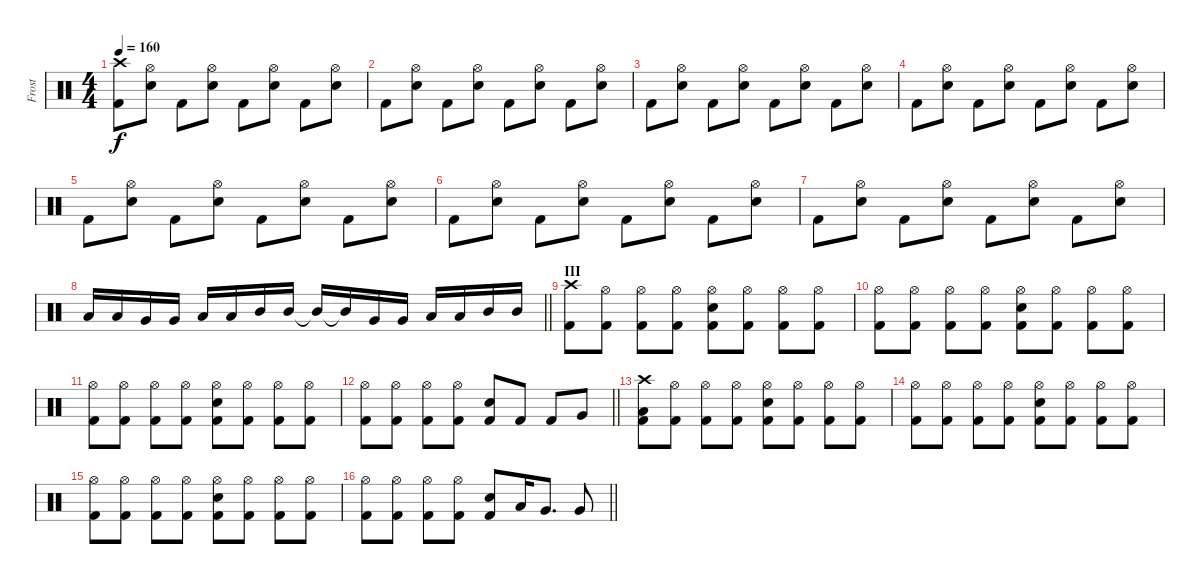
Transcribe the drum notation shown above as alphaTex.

\track ("Frost" "Frost") {instrument percussion}
\staff {score}
\articulation defaults
\ts (4 4)
\tempo 160
\clef neutral
\ks c
("Crash high (hit)" "Kick (hit) 2").8{dy f} ("Hi-Hat (open)" "Snare (hit) 2").8 "Kick (hit) 2".8 ("Hi-Hat (open)" "Snare (hit) 2").8 "Kick (hit) 2".8 ("Hi-Hat (open)" "Snare (hit) 2").8 "Kick (hit) 2".8 ("Hi-Hat (open)" "Snare (hit) 2").8 |
"Kick (hit) 2".8 ("Hi-Hat (open)" "Snare (hit) 2").8 "Kick (hit) 2".8 ("Hi-Hat (open)" "Snare (hit) 2").8 "Kick (hit) 2".8 ("Hi-Hat (open)" "Snare (hit) 2").8 "Kick (hit) 2".8 ("Hi-Hat (open)" "Snare (hit) 2").8 |
"Kick (hit) 2".8 ("Hi-Hat (open)" "Snare (hit) 2").8 "Kick (hit) 2".8 ("Hi-Hat (open)" "Snare (hit) 2").8 "Kick (hit) 2".8 ("Hi-Hat (open)" "Snare (hit) 2").8 "Kick (hit) 2".8 ("Hi-Hat (open)" "Snare (hit) 2").8 |
"Kick (hit) 2".8 ("Hi-Hat (open)" "Snare (hit) 2").8 "Kick (hit) 2".8 ("Hi-Hat (open)" "Snare (hit) 2").8 "Kick (hit) 2".8 ("Hi-Hat (open)" "Snare (hit) 2").8 "Kick (hit) 2".8 ("Hi-Hat (open)" "Snare (hit) 2").8 |
"Kick (hit) 2".8 ("Hi-Hat (open)" "Snare (hit) 2").8 "Kick (hit) 2".8 ("Hi-Hat (open)" "Snare (hit) 2").8 "Kick (hit) 2".8 ("Hi-Hat (open)" "Snare (hit) 2").8 "Kick (hit) 2".8 ("Hi-Hat (open)" "Snare (hit) 2").8 |
"Kick (hit) 2".8 ("Hi-Hat (open)" "Snare (hit) 2").8 "Kick (hit) 2".8 ("Hi-Hat (open)" "Snare (hit) 2").8 "Kick (hit) 2".8 ("Hi-Hat (open)" "Snare (hit) 2").8 "Kick (hit) 2".8 ("Hi-Hat (open)" "Snare (hit) 2").8 |
"Kick (hit) 2".8 ("Hi-Hat (open)" "Snare (hit) 2").8 "Kick (hit) 2".8 ("Hi-Hat (open)" "Snare (hit) 2").8 "Kick (hit) 2".8 ("Hi-Hat (open)" "Snare (hit) 2").8 "Kick (hit) 2".8 ("Hi-Hat (open)" "Snare (hit) 2").8 |
\barLineRight lightlight "Low Floor Tom (hit)".16 "Low Floor Tom (hit)".16 "Very Low Tom (hit)".16 "Very Low Tom (hit)".16 "Low Tom (hit)".16 "Low Tom (hit)".16 "Mid Tom (hit)".16 "Mid Tom (hit)".16 "Mid Tom (hit)"{t}.16 "Mid Tom (hit)"{t}.16 "Very Low Tom (hit)".16 "Very Low Tom (hit)".16 "Low Tom (hit)".16 "Low Tom (hit)".16 "Mid Tom (hit)".16 "Mid Tom (hit)".16
|
\section ("" "III")
("Crash high (hit)" "Kick (hit) 2").8 ("Hi-Hat (open)" "Kick (hit) 2").8 ("Hi-Hat (open)" "Kick (hit) 2").8 ("Hi-Hat (open)" "Kick (hit) 2").8 ("Hi-Hat (open)" "Snare (hit) 2" "Kick (hit) 2").8 ("Hi-Hat (open)" "Kick (hit) 2").8 ("Hi-Hat (open)" "Kick (hit) 2").8 ("Hi-Hat (open)" "Kick (hit) 2").8 |
("Hi-Hat (open)" "Kick (hit) 2").8 ("Hi-Hat (open)" "Kick (hit) 2").8 ("Hi-Hat (open)" "Kick (hit) 2").8 ("Hi-Hat (open)" "Kick (hit) 2").8 ("Hi-Hat (open)" "Snare (hit) 2" "Kick (hit) 2").8 ("Hi-Hat (open)" "Kick (hit) 2").8 ("Hi-Hat (open)" "Kick (hit) 2").8 ("Hi-Hat (open)" "Kick (hit) 2").8 |
("Hi-Hat (open)" "Kick (hit) 2").8 ("Hi-Hat (open)" "Kick (hit) 2").8 ("Hi-Hat (open)" "Kick (hit) 2").8 ("Hi-Hat (open)" "Kick (hit) 2").8 ("Hi-Hat (open)" "Snare (hit) 2" "Kick (hit) 2").8 ("Hi-Hat (open)" "Kick (hit) 2").8 ("Hi-Hat (open)" "Kick (hit) 2").8 ("Hi-Hat (open)" "Kick (hit) 2").8 |
\barLineRight lightlight
("Hi-Hat (open)" "Kick (hit) 2").8 ("Hi-Hat (open)" "Kick (hit) 2").8 ("Hi-Hat (open)" "Kick (hit) 2").8 ("Hi-Hat (open)" "Kick (hit) 2").8 ("Snare (hit) 2" "Kick (hit) 2").8 "Kick (hit) 2".8 "Kick (hit) 2".8 "Very Low Tom (hit)".8 |
("Crash high (hit)" "Low Tom (hit)" "Kick (hit) 2").8 ("Hi-Hat (open)" "Kick (hit) 2").8 ("Hi-Hat (open)" "Kick (hit) 2").8 ("Hi-Hat (open)" "Kick (hit) 2").8 ("Hi-Hat (open)" "Snare (hit) 2" "Kick (hit) 2").8 ("Hi-Hat (open)" "Kick (hit) 2").8 ("Hi-Hat (open)" "Kick (hit) 2").8 ("Hi-Hat (open)" "Kick (hit) 2").8 |
("Hi-Hat (open)" "Kick (hit) 2").8 ("Hi-Hat (open)" "Kick (hit) 2").8 ("Hi-Hat (open)" "Kick (hit) 2").8 ("Hi-Hat (open)" "Kick (hit) 2").8 ("Hi-Hat (open)" "Snare (hit) 2" "Kick (hit) 2").8 ("Hi-Hat (open)" "Kick (hit) 2").8 ("Hi-Hat (open)" "Kick (hit) 2").8 ("Hi-Hat (open)" "Kick (hit) 2").8 |
("Hi-Hat (open)" "Kick (hit) 2").8 ("Hi-Hat (open)" "Kick (hit) 2").8 ("Hi-Hat (open)" "Kick (hit) 2").8 ("Hi-Hat (open)" "Kick (hit) 2").8 ("Hi-Hat (open)" "Snare (hit) 2" "Kick (hit) 2").8 ("Hi-Hat (open)" "Kick (hit) 2").8 ("Hi-Hat (open)" "Kick (hit) 2").8 ("Hi-Hat (open)" "Kick (hit) 2").8 |
\barLineRight lightlight
("Hi-Hat (open)" "Kick (hit) 2").8 ("Hi-Hat (open)" "Kick (hit) 2").8 ("Hi-Hat (open)" "Kick (hit) 2").8 ("Hi-Hat (open)" "Kick (hit) 2").8 ("Snare (hit) 2" "Kick (hit) 2").8 "Low Floor Tom (hit)".16 "Very Low Tom (hit)".8{d} "Very Low Tom (hit)".8
